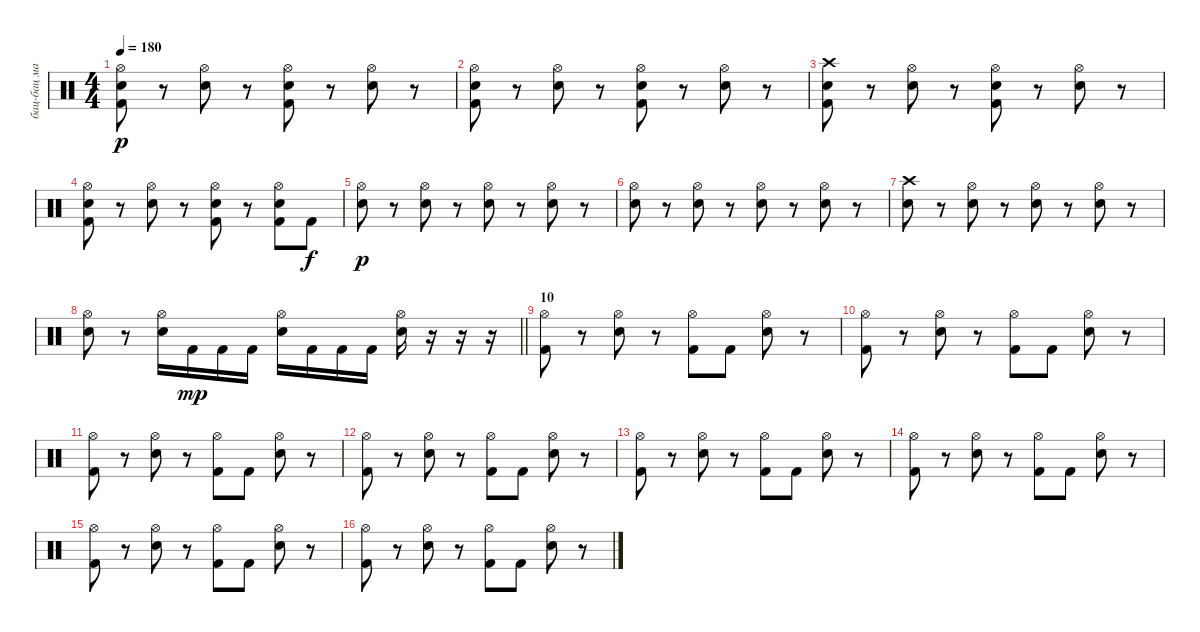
\track ("бац-бац машина" "бац-бац ма") {instrument percussion}
\staff {score}
\articulation defaults
\ts (4 4)
\tempo 180
\clef neutral
\ks c
("Hi-Hat (open)" "Snare (hit) 2" "Kick (hit) 2").8{dy p} r.8 ("Hi-Hat (open)" "Snare (hit) 2").8 r.8 ("Hi-Hat (open)" "Snare (hit) 2" "Kick (hit) 2").8 r.8 ("Hi-Hat (open)" "Snare (hit) 2").8 r.8 |
("Hi-Hat (open)" "Snare (hit) 2" "Kick (hit) 2").8 r.8 ("Hi-Hat (open)" "Snare (hit) 2").8 r.8 ("Hi-Hat (open)" "Snare (hit) 2" "Kick (hit) 2").8 r.8 ("Hi-Hat (open)" "Snare (hit) 2").8 r.8 |
("Crash high (hit)" "Snare (hit) 2" "Kick (hit) 2").8 r.8 ("Hi-Hat (open)" "Snare (hit) 2").8 r.8 ("Hi-Hat (open)" "Snare (hit) 2" "Kick (hit) 2").8 r.8 ("Hi-Hat (open)" "Snare (hit) 2").8 r.8 |
("Hi-Hat (open)" "Snare (hit) 2" "Kick (hit) 2").8 r.8 ("Hi-Hat (open)" "Snare (hit) 2").8 r.8 ("Hi-Hat (open)" "Snare (hit) 2" "Kick (hit) 2").8 r.8 ("Hi-Hat (open)" "Snare (hit) 2" "Kick (hit) 2").8 "Kick (hit) 2".8{dy f} |
("Hi-Hat (open)" "Snare (hit) 2").8{dy p} r.8 ("Hi-Hat (open)" "Snare (hit) 2").8 r.8 ("Hi-Hat (open)" "Snare (hit) 2").8 r.8 ("Hi-Hat (open)" "Snare (hit) 2").8 r.8 |
("Hi-Hat (open)" "Snare (hit) 2").8 r.8 ("Hi-Hat (open)" "Snare (hit) 2").8 r.8 ("Hi-Hat (open)" "Snare (hit) 2").8 r.8 ("Hi-Hat (open)" "Snare (hit) 2").8 r.8 |
("Crash high (hit)" "Snare (hit) 2").8 r.8 ("Hi-Hat (open)" "Snare (hit) 2").8 r.8 ("Hi-Hat (open)" "Snare (hit) 2").8 r.8 ("Hi-Hat (open)" "Snare (hit) 2").8 r.8 |
\barLineRight lightlight
("Hi-Hat (open)" "Snare (hit) 2").8 r.8 ("Hi-Hat (open)" "Snare (hit) 2").16 "Kick (hit) 2".16{dy mp} "Kick (hit) 2".16 "Kick (hit) 2".16 ("Hi-Hat (open)" "Snare (hit) 2").16 "Kick (hit) 2".16 "Kick (hit) 2".16 "Kick (hit) 2".16 ("Hi-Hat (open)" "Snare (hit) 2").16 r.16 r.16 r.16 |
\section ("" "10")
("Hi-Hat (open)" "Kick (hit) 2").8 r.8 ("Hi-Hat (open)" "Snare (hit) 2").8 r.8 ("Hi-Hat (open)" "Kick (hit) 2").8 "Kick (hit) 2".8 ("Hi-Hat (open)" "Snare (hit) 2").8 r.8 |
("Hi-Hat (open)" "Kick (hit) 2").8 r.8 ("Hi-Hat (open)" "Snare (hit) 2").8 r.8 ("Hi-Hat (open)" "Kick (hit) 2").8 "Kick (hit) 2".8 ("Hi-Hat (open)" "Snare (hit) 2").8 r.8 |
("Hi-Hat (open)" "Kick (hit) 2").8 r.8 ("Hi-Hat (open)" "Snare (hit) 2").8 r.8 ("Hi-Hat (open)" "Kick (hit) 2").8 "Kick (hit) 2".8 ("Hi-Hat (open)" "Snare (hit) 2").8 r.8 |
("Hi-Hat (open)" "Kick (hit) 2").8 r.8 ("Hi-Hat (open)" "Snare (hit) 2").8 r.8 ("Hi-Hat (open)" "Kick (hit) 2").8 "Kick (hit) 2".8 ("Hi-Hat (open)" "Snare (hit) 2").8 r.8 |
("Hi-Hat (open)" "Kick (hit) 2").8 r.8 ("Hi-Hat (open)" "Snare (hit) 2").8 r.8 ("Hi-Hat (open)" "Kick (hit) 2").8 "Kick (hit) 2".8 ("Hi-Hat (open)" "Snare (hit) 2").8 r.8 |
("Hi-Hat (open)" "Kick (hit) 2").8 r.8 ("Hi-Hat (open)" "Snare (hit) 2").8 r.8 ("Hi-Hat (open)" "Kick (hit) 2").8 "Kick (hit) 2".8 ("Hi-Hat (open)" "Snare (hit) 2").8 r.8 |
("Hi-Hat (open)" "Kick (hit) 2").8 r.8 ("Hi-Hat (open)" "Snare (hit) 2").8 r.8 ("Hi-Hat (open)" "Kick (hit) 2").8 "Kick (hit) 2".8 ("Hi-Hat (open)" "Snare (hit) 2").8 r.8 |
("Hi-Hat (open)" "Kick (hit) 2").8 r.8 ("Hi-Hat (open)" "Snare (hit) 2").8 r.8 ("Hi-Hat (open)" "Kick (hit) 2").8 "Kick (hit) 2".8 ("Hi-Hat (open)" "Snare (hit) 2").8 r.8
